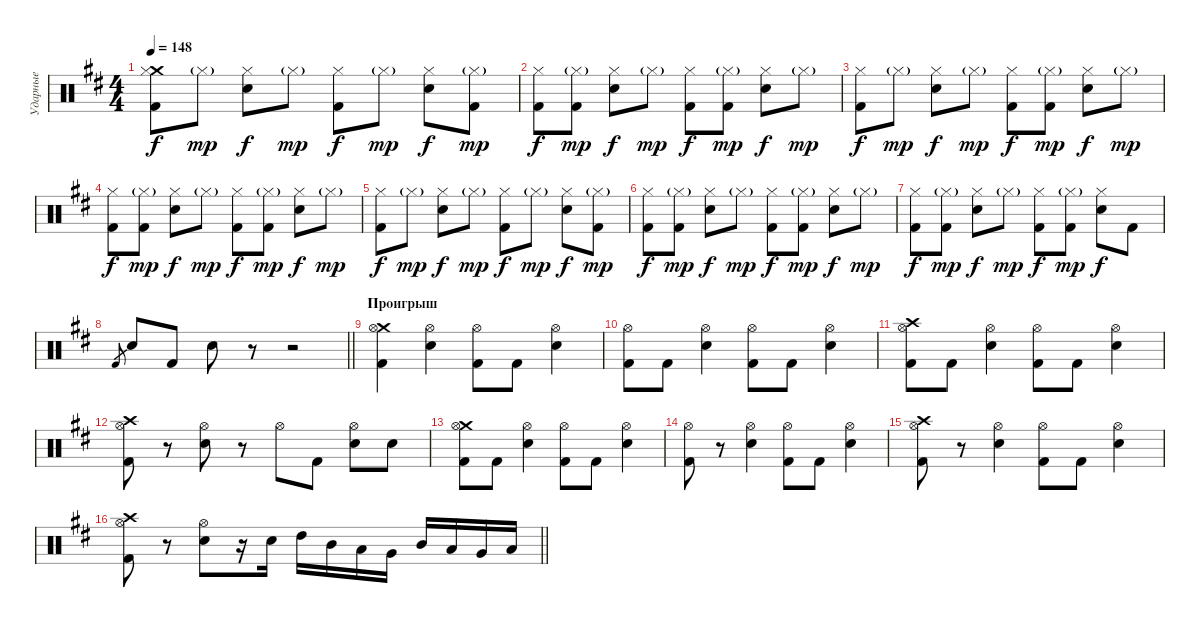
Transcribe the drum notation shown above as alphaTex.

\track ("Ударные" "Ударные") {instrument percussion}
\staff {score}
\articulation defaults
\ts (4 4)
\tempo 148
\clef neutral
\ks bminor
("Crash medium (hit)" "Kick (hit) 2" "Hi-Hat (closed)").8{dy f} "Hi-Hat (closed)"{g}.8{dy mp} ("Electric Snare (hit)" "Hi-Hat (closed)").8{dy f} "Hi-Hat (closed)"{g}.8{dy mp} ("Kick (hit) 2" "Hi-Hat (closed)").8{dy f} "Hi-Hat (closed)"{g}.8{dy mp} ("Electric Snare (hit)" "Hi-Hat (closed)").8{dy f} ("Kick (hit) 2" "Hi-Hat (closed)"{g}).8{dy mp} |
("Kick (hit) 2" "Hi-Hat (closed)").8{dy f} ("Kick (hit) 2" "Hi-Hat (closed)"{g}).8{dy mp} ("Electric Snare (hit)" "Hi-Hat (closed)").8{dy f} "Hi-Hat (closed)"{g}.8{dy mp} ("Kick (hit) 2" "Hi-Hat (closed)").8{dy f} ("Kick (hit) 2" "Hi-Hat (closed)"{g}).8{dy mp} ("Electric Snare (hit)" "Hi-Hat (closed)").8{dy f} "Hi-Hat (closed)"{g}.8{dy mp} |
("Kick (hit) 2" "Hi-Hat (closed)").8{dy f} "Hi-Hat (closed)"{g}.8{dy mp} ("Electric Snare (hit)" "Hi-Hat (closed)").8{dy f} "Hi-Hat (closed)"{g}.8{dy mp} ("Kick (hit) 2" "Hi-Hat (closed)").8{dy f} ("Kick (hit) 2" "Hi-Hat (closed)"{g}).8{dy mp} ("Electric Snare (hit)" "Hi-Hat (closed)").8{dy f} "Hi-Hat (closed)"{g}.8{dy mp} |
("Kick (hit) 2" "Hi-Hat (closed)").8{dy f} ("Kick (hit) 2" "Hi-Hat (closed)"{g}).8{dy mp} ("Electric Snare (hit)" "Hi-Hat (closed)").8{dy f} "Hi-Hat (closed)"{g}.8{dy mp} ("Kick (hit) 2" "Hi-Hat (closed)").8{dy f} ("Kick (hit) 2" "Hi-Hat (closed)"{g}).8{dy mp} ("Electric Snare (hit)" "Hi-Hat (closed)").8{dy f} "Hi-Hat (closed)"{g}.8{dy mp} |
("Kick (hit) 2" "Hi-Hat (closed)").8{dy f} "Hi-Hat (closed)"{g}.8{dy mp} ("Electric Snare (hit)" "Hi-Hat (closed)").8{dy f} "Hi-Hat (closed)"{g}.8{dy mp} ("Kick (hit) 2" "Hi-Hat (closed)").8{dy f} "Hi-Hat (closed)"{g}.8{dy mp} ("Electric Snare (hit)" "Hi-Hat (closed)").8{dy f} ("Kick (hit) 2" "Hi-Hat (closed)"{g}).8{dy mp} |
("Kick (hit) 2" "Hi-Hat (closed)").8{dy f} ("Kick (hit) 2" "Hi-Hat (closed)"{g}).8{dy mp} ("Electric Snare (hit)" "Hi-Hat (closed)").8{dy f} "Hi-Hat (closed)"{g}.8{dy mp} ("Kick (hit) 2" "Hi-Hat (closed)").8{dy f} ("Kick (hit) 2" "Hi-Hat (closed)"{g}).8{dy mp} ("Electric Snare (hit)" "Hi-Hat (closed)").8{dy f} "Hi-Hat (closed)"{g}.8{dy mp} |
("Kick (hit) 2" "Hi-Hat (closed)").8{dy f} ("Kick (hit) 2" "Hi-Hat (closed)"{g}).8{dy mp} ("Electric Snare (hit)" "Hi-Hat (closed)").8{dy f} "Hi-Hat (closed)"{g}.8{dy mp} ("Kick (hit) 2" "Hi-Hat (closed)").8{dy f} ("Kick (hit) 2" "Hi-Hat (closed)"{g}).8{dy mp} ("Electric Snare (hit)" "Hi-Hat (closed)").8{dy f} "Kick (hit) 2".8 |
\barLineRight lightlight "Kick (hit) 2".8{gr} "Electric Snare (hit)".8 "Kick (hit) 2".8 "Electric Snare (hit)".8
r.8 r.2 |
\section ("" "Проигрыш")
("Crash medium (hit)" "Kick (hit) 2" "Hi-Hat (open)").4 ("Electric Snare (hit)" "Hi-Hat (open)").4 ("Kick (hit) 2" "Hi-Hat (open)").8 "Kick (hit) 2".8 ("Electric Snare (hit)" "Hi-Hat (open)").4 |
("Kick (hit) 2" "Hi-Hat (open)").8 "Kick (hit) 2".8 ("Electric Snare (hit)" "Hi-Hat (open)").4 ("Kick (hit) 2" "Hi-Hat (open)").8 "Kick (hit) 2".8 ("Electric Snare (hit)" "Hi-Hat (open)").4 |
("Crash high (hit)" "Kick (hit) 2" "Hi-Hat (open)").8 "Kick (hit) 2".8 ("Electric Snare (hit)" "Hi-Hat (open)").4 ("Kick (hit) 2" "Hi-Hat (open)").8 "Kick (hit) 2".8 ("Electric Snare (hit)" "Hi-Hat (open)").4 |
("Crash high (hit)" "Kick (hit) 2" "Hi-Hat (open)").8 r.8 ("Electric Snare (hit)" "Hi-Hat (open)").8 r.8 "Hi-Hat (open)".8 "Kick (hit) 2".8 ("Electric Snare (hit)" "Hi-Hat (open)").8 "Electric Snare (hit)".8 |
("Crash medium (hit)" "Kick (hit) 2" "Hi-Hat (open)").8 "Kick (hit) 2".8 ("Electric Snare (hit)" "Hi-Hat (open)").4 ("Kick (hit) 2" "Hi-Hat (open)").8 "Kick (hit) 2".8 ("Electric Snare (hit)" "Hi-Hat (open)").4 |
("Kick (hit) 2" "Hi-Hat (open)").8 r.8 ("Electric Snare (hit)" "Hi-Hat (open)").4 ("Kick (hit) 2" "Hi-Hat (open)").8 "Kick (hit) 2".8 ("Electric Snare (hit)" "Hi-Hat (open)").4 |
("Crash high (hit)" "Kick (hit) 2" "Hi-Hat (open)").8 r.8 ("Electric Snare (hit)" "Hi-Hat (open)").4 ("Kick (hit) 2" "Hi-Hat (open)").8 "Kick (hit) 2".8 ("Electric Snare (hit)" "Hi-Hat (open)").4 |
\barLineRight lightlight
("Crash high (hit)" "Kick (hit) 2" "Hi-Hat (open)").8 r.8 ("Electric Snare (hit)" "Hi-Hat (open)").8 r.16 "Electric Snare (hit)".16 "High Tom (hit)".16 "Mid Tom (hit)".16 "Low Tom (hit)".16 "Very Low Tom (hit)".16 "Mid Tom (hit)".16 "Low Tom (hit)".16 "Very Low Tom (hit)".16 "Low Floor Tom (hit)".16
